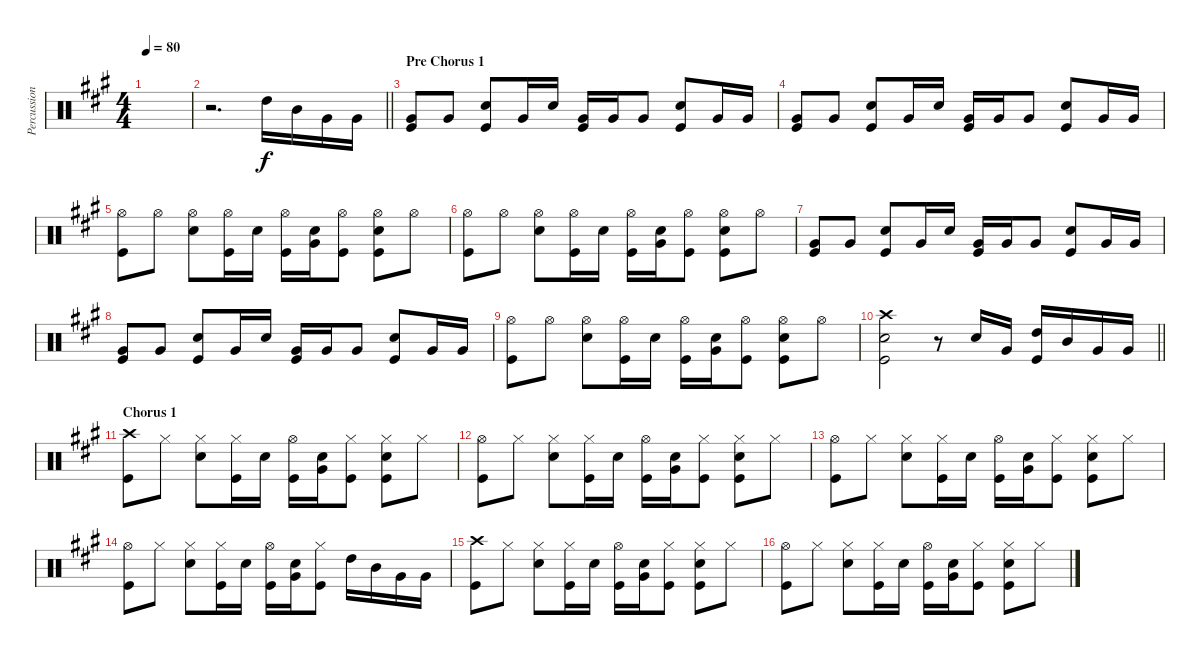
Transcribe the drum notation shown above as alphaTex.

\track ("Percussion" "Percussion") {instrument percussion bank 47}
\staff {score}
\articulation defaults
\ts (4 4)
\tempo 80
\clef neutral
\ks a
|
\barLineRight lightlight
r.2{d} "High Tom (hit)".16 "Mid Tom (hit)".16 "Very Low Tom (hit)".16 "Very Low Tom (hit)".16 |
\section ("" "Pre Chorus 1")
("Very Low Tom (hit)" "Kick (hit)").8 "Very Low Tom (hit)".8 ("Snare (hit) 2" "Kick (hit)").8 "Very Low Tom (hit)".16 "Snare (hit) 2".16 ("Very Low Tom (hit)" "Kick (hit)").16 "Very Low Tom (hit)".16 "Very Low Tom (hit)".8 ("Snare (hit) 2" "Kick (hit)").8 "Very Low Tom (hit)".16 "Very Low Tom (hit)".16 |
("Very Low Tom (hit)" "Kick (hit)").8 "Very Low Tom (hit)".8 ("Snare (hit) 2" "Kick (hit)").8 "Very Low Tom (hit)".16 "Snare (hit) 2".16 ("Very Low Tom (hit)" "Kick (hit)").16 "Very Low Tom (hit)".16 "Very Low Tom (hit)".8 ("Snare (hit) 2" "Kick (hit)").8 "Very Low Tom (hit)".16 "Very Low Tom (hit)".16 |
("Hi-Hat (open)" "Kick (hit)").8 "Hi-Hat (open)".8 ("Hi-Hat (open)" "Snare (hit) 2").8 ("Hi-Hat (open)" "Kick (hit)").16 "Snare (hit) 2".16 ("Hi-Hat (open)" "Kick (hit)").16 ("Very Low Tom (hit)" "Snare (hit) 2").16 ("Hi-Hat (open)" "Kick (hit)").8 ("Hi-Hat (open)" "Snare (hit) 2" "Kick (hit)").8 "Hi-Hat (open)".8 |
("Hi-Hat (open)" "Kick (hit)").8 "Hi-Hat (open)".8 ("Hi-Hat (open)" "Snare (hit) 2").8 ("Hi-Hat (open)" "Kick (hit)").16 "Snare (hit) 2".16 ("Hi-Hat (open)" "Kick (hit)").16 ("Very Low Tom (hit)" "Snare (hit) 2").16 ("Hi-Hat (open)" "Kick (hit)").8 ("Hi-Hat (open)" "Snare (hit) 2" "Kick (hit)").8 "Hi-Hat (open)".8 |
("Very Low Tom (hit)" "Kick (hit)").8 "Very Low Tom (hit)".8 ("Snare (hit) 2" "Kick (hit)").8 "Very Low Tom (hit)".16 "Snare (hit) 2".16 ("Very Low Tom (hit)" "Kick (hit)").16 "Very Low Tom (hit)".16 "Very Low Tom (hit)".8 ("Snare (hit) 2" "Kick (hit)").8 "Very Low Tom (hit)".16 "Very Low Tom (hit)".16 |
("Very Low Tom (hit)" "Kick (hit)").8 "Very Low Tom (hit)".8 ("Snare (hit) 2" "Kick (hit)").8 "Very Low Tom (hit)".16 "Snare (hit) 2".16 ("Very Low Tom (hit)" "Kick (hit)").16 "Very Low Tom (hit)".16 "Very Low Tom (hit)".8 ("Snare (hit) 2" "Kick (hit)").8 "Very Low Tom (hit)".16 "Very Low Tom (hit)".16 |
("Hi-Hat (open)" "Kick (hit)").8 "Hi-Hat (open)".8 ("Hi-Hat (open)" "Snare (hit) 2").8 ("Hi-Hat (open)" "Kick (hit)").16 "Snare (hit) 2".16 ("Hi-Hat (open)" "Kick (hit)").16 ("Very Low Tom (hit)" "Snare (hit) 2").16 ("Hi-Hat (open)" "Kick (hit)").8 ("Hi-Hat (open)" "Snare (hit) 2" "Kick (hit)").8 "Hi-Hat (open)".8 |
\barLineRight lightlight
("Crash high (hit)" "Snare (hit) 2" "Kick (hit)").2 r.8 "Snare (hit) 2".16 "Very Low Tom (hit)".16 ("High Tom (hit)" "Kick (hit)").16 "Mid Tom (hit)".16 "Very Low Tom (hit)".16 "Very Low Tom (hit)".16 |
\section ("" "Chorus 1")
("Crash high (hit)" "Kick (hit)").8 "Hi-Hat (closed)".8 ("Hi-Hat (closed)" "Snare (hit) 2").8 ("Hi-Hat (closed)" "Kick (hit)").16 "Snare (hit) 2".16 ("Hi-Hat (open)" "Kick (hit)").16 ("Very Low Tom (hit)" "Snare (hit) 2").16 ("Hi-Hat (closed)" "Kick (hit)").8 ("Hi-Hat (closed)" "Snare (hit) 2" "Kick (hit)").8 "Hi-Hat (closed)".8 |
("Hi-Hat (open)" "Kick (hit)").8 "Hi-Hat (closed)".8 ("Hi-Hat (closed)" "Snare (hit) 2").8 ("Hi-Hat (closed)" "Kick (hit)").16 "Snare (hit) 2".16 ("Hi-Hat (open)" "Kick (hit)").16 ("Very Low Tom (hit)" "Snare (hit) 2").16 ("Hi-Hat (closed)" "Kick (hit)").8 ("Hi-Hat (closed)" "Snare (hit) 2" "Kick (hit)").8 "Hi-Hat (closed)".8 |
("Hi-Hat (open)" "Kick (hit)").8 "Hi-Hat (closed)".8 ("Hi-Hat (closed)" "Snare (hit) 2").8 ("Hi-Hat (closed)" "Kick (hit)").16 "Snare (hit) 2".16 ("Hi-Hat (open)" "Kick (hit)").16 ("Very Low Tom (hit)" "Snare (hit) 2").16 ("Hi-Hat (closed)" "Kick (hit)").8 ("Hi-Hat (closed)" "Snare (hit) 2" "Kick (hit)").8 "Hi-Hat (closed)".8 |
("Hi-Hat (open)" "Kick (hit)").8 "Hi-Hat (closed)".8 ("Hi-Hat (closed)" "Snare (hit) 2").8 ("Hi-Hat (closed)" "Kick (hit)").16 "Snare (hit) 2".16 ("Hi-Hat (open)" "Kick (hit)").16 ("Very Low Tom (hit)" "Snare (hit) 2").16 ("Hi-Hat (closed)" "Kick (hit)").8 "High Tom (hit)".16 "Mid Tom (hit)".16 "Very Low Tom (hit)".16 "Very Low Tom (hit)".16 |
("Crash high (hit)" "Kick (hit)").8 "Hi-Hat (closed)".8 ("Hi-Hat (closed)" "Snare (hit) 2").8 ("Hi-Hat (closed)" "Kick (hit)").16 "Snare (hit) 2".16 ("Hi-Hat (open)" "Kick (hit)").16 ("Very Low Tom (hit)" "Snare (hit) 2").16 ("Hi-Hat (closed)" "Kick (hit)").8 ("Hi-Hat (closed)" "Snare (hit) 2" "Kick (hit)").8 "Hi-Hat (closed)".8 |
("Hi-Hat (open)" "Kick (hit)").8 "Hi-Hat (closed)".8 ("Hi-Hat (closed)" "Snare (hit) 2").8 ("Hi-Hat (closed)" "Kick (hit)").16 "Snare (hit) 2".16 ("Hi-Hat (open)" "Kick (hit)").16 ("Very Low Tom (hit)" "Snare (hit) 2").16 ("Hi-Hat (closed)" "Kick (hit)").8 ("Hi-Hat (closed)" "Snare (hit) 2" "Kick (hit)").8 "Hi-Hat (closed)".8
